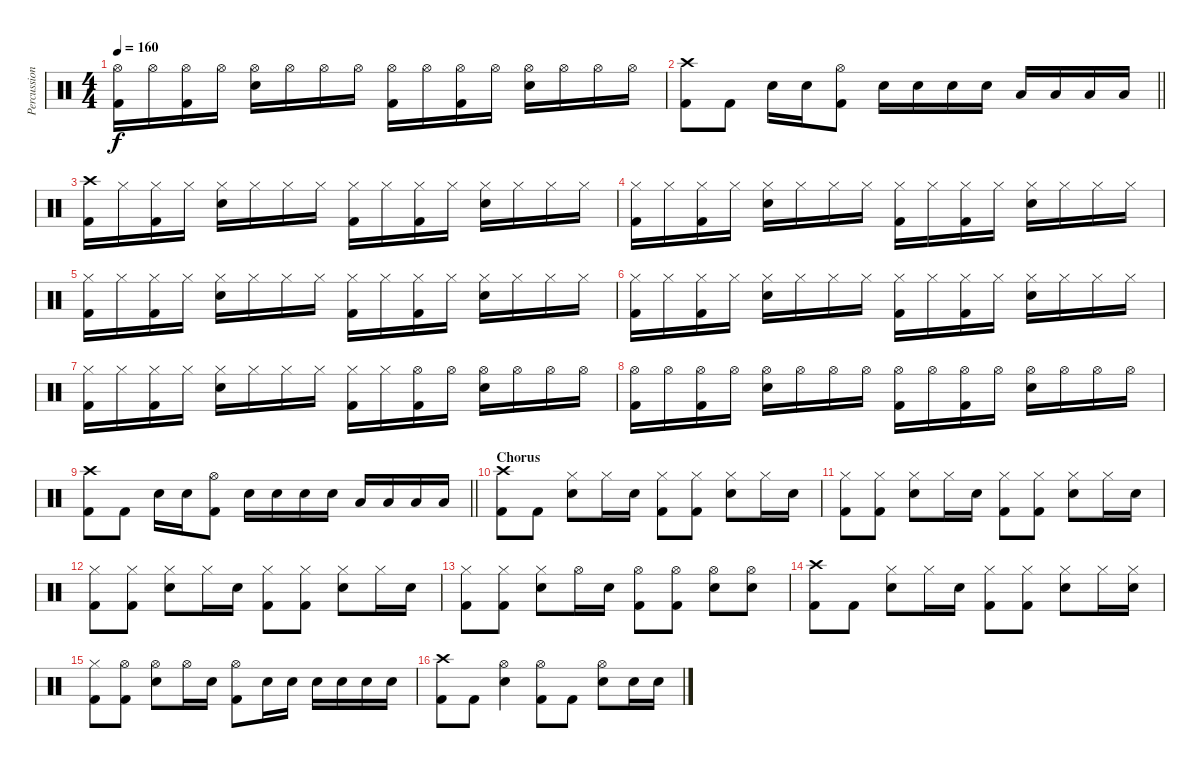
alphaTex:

\track ("Percussion" "Percussion") {instrument percussion}
\staff {score}
\articulation defaults
\ts (4 4)
\tempo 160
\clef neutral
\ks c
("Hi-Hat (open)" "Kick (hit) 2").16{dy f} "Hi-Hat (open)".16 ("Hi-Hat (open)" "Kick (hit) 2").16 "Hi-Hat (open)".16 ("Hi-Hat (open)" "Electric Snare (hit)").16 "Hi-Hat (open)".16 "Hi-Hat (open)".16 "Hi-Hat (open)".16 ("Hi-Hat (open)" "Kick (hit) 2").16 "Hi-Hat (open)".16 ("Hi-Hat (open)" "Kick (hit) 2").16 "Hi-Hat (open)".16 ("Hi-Hat (open)" "Electric Snare (hit)").16 "Hi-Hat (open)".16 "Hi-Hat (open)".16 "Hi-Hat (open)".16 |
\barLineRight lightlight
("Crash high (hit)" "Kick (hit) 2").8 "Kick (hit) 2".8 "Electric Snare (hit)".16 "Electric Snare (hit)".16 ("Hi-Hat (open)" "Kick (hit) 2").8 "Electric Snare (hit)".16 "Electric Snare (hit)".16 "Electric Snare (hit)".16 "Electric Snare (hit)".16 "Low Tom (hit)".16 "Low Tom (hit)".16 "Low Tom (hit)".16 "Low Tom (hit)".16 |
("Crash high (hit)" "Kick (hit) 2").16 "Hi-Hat (closed)".16 ("Hi-Hat (closed)" "Kick (hit) 2").16 "Hi-Hat (closed)".16 ("Hi-Hat (closed)" "Electric Snare (hit)").16 "Hi-Hat (closed)".16 "Hi-Hat (closed)".16 "Hi-Hat (closed)".16 ("Hi-Hat (closed)" "Kick (hit) 2").16 "Hi-Hat (closed)".16 ("Hi-Hat (closed)" "Kick (hit) 2").16 "Hi-Hat (closed)".16 ("Hi-Hat (closed)" "Electric Snare (hit)").16 "Hi-Hat (closed)".16 "Hi-Hat (closed)".16 "Hi-Hat (closed)".16 |
("Hi-Hat (closed)" "Kick (hit) 2").16 "Hi-Hat (closed)".16 ("Hi-Hat (closed)" "Kick (hit) 2").16 "Hi-Hat (closed)".16 ("Hi-Hat (closed)" "Electric Snare (hit)").16 "Hi-Hat (closed)".16 "Hi-Hat (closed)".16 "Hi-Hat (closed)".16 ("Hi-Hat (closed)" "Kick (hit) 2").16 "Hi-Hat (closed)".16 ("Hi-Hat (closed)" "Kick (hit) 2").16 "Hi-Hat (closed)".16 ("Hi-Hat (closed)" "Electric Snare (hit)").16 "Hi-Hat (closed)".16 "Hi-Hat (closed)".16 "Hi-Hat (closed)".16 |
("Hi-Hat (closed)" "Kick (hit) 2").16 "Hi-Hat (closed)".16 ("Hi-Hat (closed)" "Kick (hit) 2").16 "Hi-Hat (closed)".16 ("Hi-Hat (closed)" "Electric Snare (hit)").16 "Hi-Hat (closed)".16 "Hi-Hat (closed)".16 "Hi-Hat (closed)".16 ("Hi-Hat (closed)" "Kick (hit) 2").16 "Hi-Hat (closed)".16 ("Hi-Hat (closed)" "Kick (hit) 2").16 "Hi-Hat (closed)".16 ("Hi-Hat (closed)" "Electric Snare (hit)").16 "Hi-Hat (closed)".16 "Hi-Hat (closed)".16 "Hi-Hat (closed)".16 |
("Hi-Hat (closed)" "Kick (hit) 2").16 "Hi-Hat (closed)".16 ("Hi-Hat (closed)" "Kick (hit) 2").16 "Hi-Hat (closed)".16 ("Hi-Hat (closed)" "Electric Snare (hit)").16 "Hi-Hat (closed)".16 "Hi-Hat (closed)".16 "Hi-Hat (closed)".16 ("Hi-Hat (closed)" "Kick (hit) 2").16 "Hi-Hat (closed)".16 ("Hi-Hat (closed)" "Kick (hit) 2").16 "Hi-Hat (closed)".16 ("Hi-Hat (closed)" "Electric Snare (hit)").16 "Hi-Hat (closed)".16 "Hi-Hat (closed)".16 "Hi-Hat (closed)".16 |
("Hi-Hat (closed)" "Kick (hit) 2").16 "Hi-Hat (closed)".16 ("Hi-Hat (closed)" "Kick (hit) 2").16 "Hi-Hat (closed)".16 ("Hi-Hat (closed)" "Electric Snare (hit)").16 "Hi-Hat (closed)".16 "Hi-Hat (closed)".16 "Hi-Hat (closed)".16 ("Hi-Hat (closed)" "Kick (hit) 2").16 "Hi-Hat (closed)".16 ("Hi-Hat (open)" "Kick (hit) 2").16 "Hi-Hat (open)".16 ("Hi-Hat (open)" "Electric Snare (hit)").16 "Hi-Hat (open)".16 "Hi-Hat (open)".16 "Hi-Hat (open)".16 |
("Hi-Hat (open)" "Kick (hit) 2").16 "Hi-Hat (open)".16 ("Hi-Hat (open)" "Kick (hit) 2").16 "Hi-Hat (open)".16 ("Hi-Hat (open)" "Electric Snare (hit)").16 "Hi-Hat (open)".16 "Hi-Hat (open)".16 "Hi-Hat (open)".16 ("Hi-Hat (open)" "Kick (hit) 2").16 "Hi-Hat (open)".16 ("Hi-Hat (open)" "Kick (hit) 2").16 "Hi-Hat (open)".16 ("Hi-Hat (open)" "Electric Snare (hit)").16 "Hi-Hat (open)".16 "Hi-Hat (open)".16 "Hi-Hat (open)".16 |
\barLineRight lightlight
("Crash high (hit)" "Kick (hit) 2").8 "Kick (hit) 2".8 "Electric Snare (hit)".16 "Electric Snare (hit)".16 ("Hi-Hat (open)" "Kick (hit) 2").8 "Electric Snare (hit)".16 "Electric Snare (hit)".16 "Electric Snare (hit)".16 "Electric Snare (hit)".16 "Low Tom (hit)".16 "Low Tom (hit)".16 "Low Tom (hit)".16 "Low Tom (hit)".16 |
\section ("" "Chorus")
("Crash high (hit)" "Kick (hit) 2").8 "Kick (hit) 2".8 ("Hi-Hat (closed)" "Electric Snare (hit)").8 "Hi-Hat (closed)".16 "Electric Snare (hit)".16 ("Hi-Hat (closed)" "Kick (hit) 2").8 ("Hi-Hat (closed)" "Kick (hit) 2").8 ("Hi-Hat (closed)" "Electric Snare (hit)").8 "Hi-Hat (closed)".16 "Electric Snare (hit)".16 |
("Hi-Hat (closed)" "Kick (hit) 2").8 ("Hi-Hat (closed)" "Kick (hit) 2").8 ("Hi-Hat (closed)" "Electric Snare (hit)").8 "Hi-Hat (closed)".16 "Electric Snare (hit)".16 ("Hi-Hat (closed)" "Kick (hit) 2").8 ("Hi-Hat (closed)" "Kick (hit) 2").8 ("Hi-Hat (closed)" "Electric Snare (hit)").8 "Hi-Hat (closed)".16 "Electric Snare (hit)".16 |
("Hi-Hat (closed)" "Kick (hit) 2").8 ("Hi-Hat (closed)" "Kick (hit) 2").8 ("Hi-Hat (closed)" "Electric Snare (hit)").8 "Hi-Hat (closed)".16 "Electric Snare (hit)".16 ("Hi-Hat (closed)" "Kick (hit) 2").8 ("Hi-Hat (closed)" "Kick (hit) 2").8 ("Hi-Hat (closed)" "Electric Snare (hit)").8 "Hi-Hat (closed)".16 "Electric Snare (hit)".16 |
("Hi-Hat (closed)" "Kick (hit) 2").8 ("Hi-Hat (closed)" "Kick (hit) 2").8 ("Hi-Hat (closed)" "Electric Snare (hit)").8 "Hi-Hat (open)".16 "Electric Snare (hit)".16 ("Hi-Hat (open)" "Kick (hit) 2").8 ("Hi-Hat (open)" "Kick (hit) 2").8 ("Hi-Hat (open)" "Electric Snare (hit)").8 ("Hi-Hat (open)" "Electric Snare (hit)").8 |
("Crash high (hit)" "Kick (hit) 2").8 "Kick (hit) 2".8 ("Hi-Hat (closed)" "Electric Snare (hit)").8 "Hi-Hat (closed)".16 "Electric Snare (hit)".16 ("Hi-Hat (closed)" "Kick (hit) 2").8 ("Hi-Hat (closed)" "Kick (hit) 2").8 ("Hi-Hat (closed)" "Electric Snare (hit)").8 "Hi-Hat (closed)".16 ("Hi-Hat (closed)" "Electric Snare (hit)").16 |
("Hi-Hat (closed)" "Kick (hit) 2").8 ("Hi-Hat (open)" "Kick (hit) 2").8 ("Hi-Hat (open)" "Electric Snare (hit)").8 "Hi-Hat (open)".16 "Electric Snare (hit)".16 ("Hi-Hat (open)" "Kick (hit) 2").8 "Electric Snare (hit)".16 "Electric Snare (hit)".16 "Electric Snare (hit)".16 "Electric Snare (hit)".16 "Electric Snare (hit)".16 "Electric Snare (hit)".16 |
("Crash high (hit)" "Kick (hit) 2").8 "Kick (hit) 2".8 ("Hi-Hat (open)" "Electric Snare (hit)").4 ("Hi-Hat (open)" "Kick (hit) 2").8 "Kick (hit) 2".8 ("Hi-Hat (open)" "Electric Snare (hit)").8 "Electric Snare (hit)".16 "Electric Snare (hit)".16
